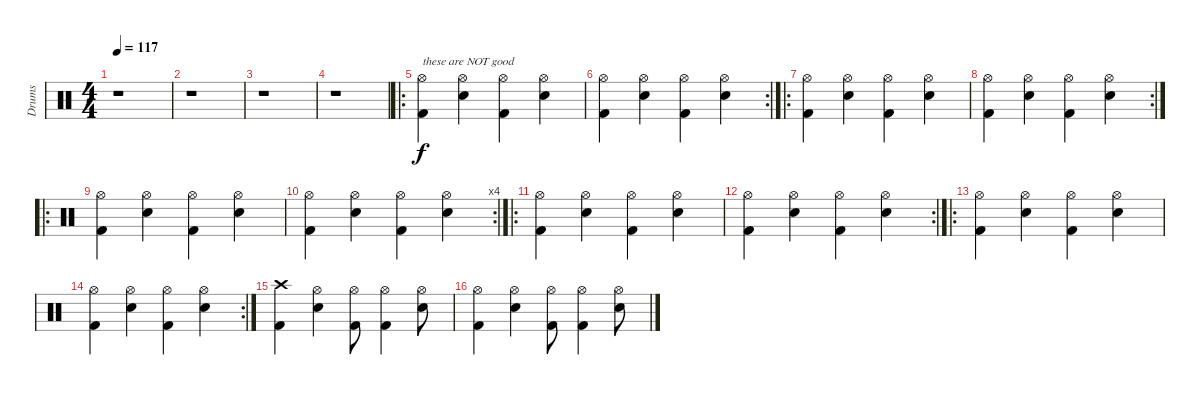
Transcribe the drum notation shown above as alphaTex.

\track ("Drums" "Drums") {instrument percussion}
\staff {score}
\articulation defaults
\ts (4 4)
\tempo 117
\clef neutral
\ks c
r.1{dy f} |
r.1 |
r.1 |
r.1 |
\ro
("Hi-Hat (open)" "Kick (hit) 2").4{txt "these are NOT good"} ("Hi-Hat (open)" "Snare (hit) 2").4 ("Hi-Hat (open)" "Kick (hit) 2").4 ("Hi-Hat (open)" "Snare (hit) 2").4 |
\rc 2
("Hi-Hat (open)" "Kick (hit) 2").4 ("Hi-Hat (open)" "Snare (hit) 2").4 ("Hi-Hat (open)" "Kick (hit) 2").4 ("Hi-Hat (open)" "Snare (hit) 2").4 |
\ro
("Hi-Hat (open)" "Kick (hit) 2").4 ("Hi-Hat (open)" "Snare (hit) 2").4 ("Hi-Hat (open)" "Kick (hit) 2").4 ("Hi-Hat (open)" "Snare (hit) 2").4 |
\rc 2
("Hi-Hat (open)" "Kick (hit) 2").4 ("Hi-Hat (open)" "Snare (hit) 2").4 ("Hi-Hat (open)" "Kick (hit) 2").4 ("Hi-Hat (open)" "Snare (hit) 2").4 |
\ro
("Hi-Hat (open)" "Kick (hit) 2").4{volume 11} ("Hi-Hat (open)" "Snare (hit) 2").4 ("Hi-Hat (open)" "Kick (hit) 2").4 ("Hi-Hat (open)" "Snare (hit) 2").4 |
\rc 4
("Hi-Hat (open)" "Kick (hit) 2").4 ("Hi-Hat (open)" "Snare (hit) 2").4 ("Hi-Hat (open)" "Kick (hit) 2").4 ("Hi-Hat (open)" "Snare (hit) 2").4 |
\ro
("Hi-Hat (open)" "Kick (hit) 2").4{volume 14} ("Hi-Hat (open)" "Snare (hit) 2").4 ("Hi-Hat (open)" "Kick (hit) 2").4 ("Hi-Hat (open)" "Snare (hit) 2").4 |
\rc 2
("Hi-Hat (open)" "Kick (hit) 2").4 ("Hi-Hat (open)" "Snare (hit) 2").4 ("Hi-Hat (open)" "Kick (hit) 2").4 ("Hi-Hat (open)" "Snare (hit) 2").4 |
\ro
("Hi-Hat (open)" "Kick (hit) 2").4{volume 14} ("Hi-Hat (open)" "Snare (hit) 2").4 ("Hi-Hat (open)" "Kick (hit) 2").4 ("Hi-Hat (open)" "Snare (hit) 2").4 |
\rc 2
("Hi-Hat (open)" "Kick (hit) 2").4 ("Hi-Hat (open)" "Snare (hit) 2").4 ("Hi-Hat (open)" "Kick (hit) 2").4 ("Hi-Hat (open)" "Snare (hit) 2").4 |
("Crash high (hit)" "Kick (hit) 2").4 ("Hi-Hat (open)" "Snare (hit) 2").4 ("Hi-Hat (open)" "Kick (hit) 2").8 ("Hi-Hat (open)" "Kick (hit) 2").4 ("Hi-Hat (open)" "Snare (hit) 2").8 |
("Hi-Hat (open)" "Kick (hit) 2").4 ("Hi-Hat (open)" "Snare (hit) 2").4 ("Hi-Hat (open)" "Kick (hit) 2").8 ("Hi-Hat (open)" "Kick (hit) 2").4 ("Hi-Hat (open)" "Snare (hit) 2").8
